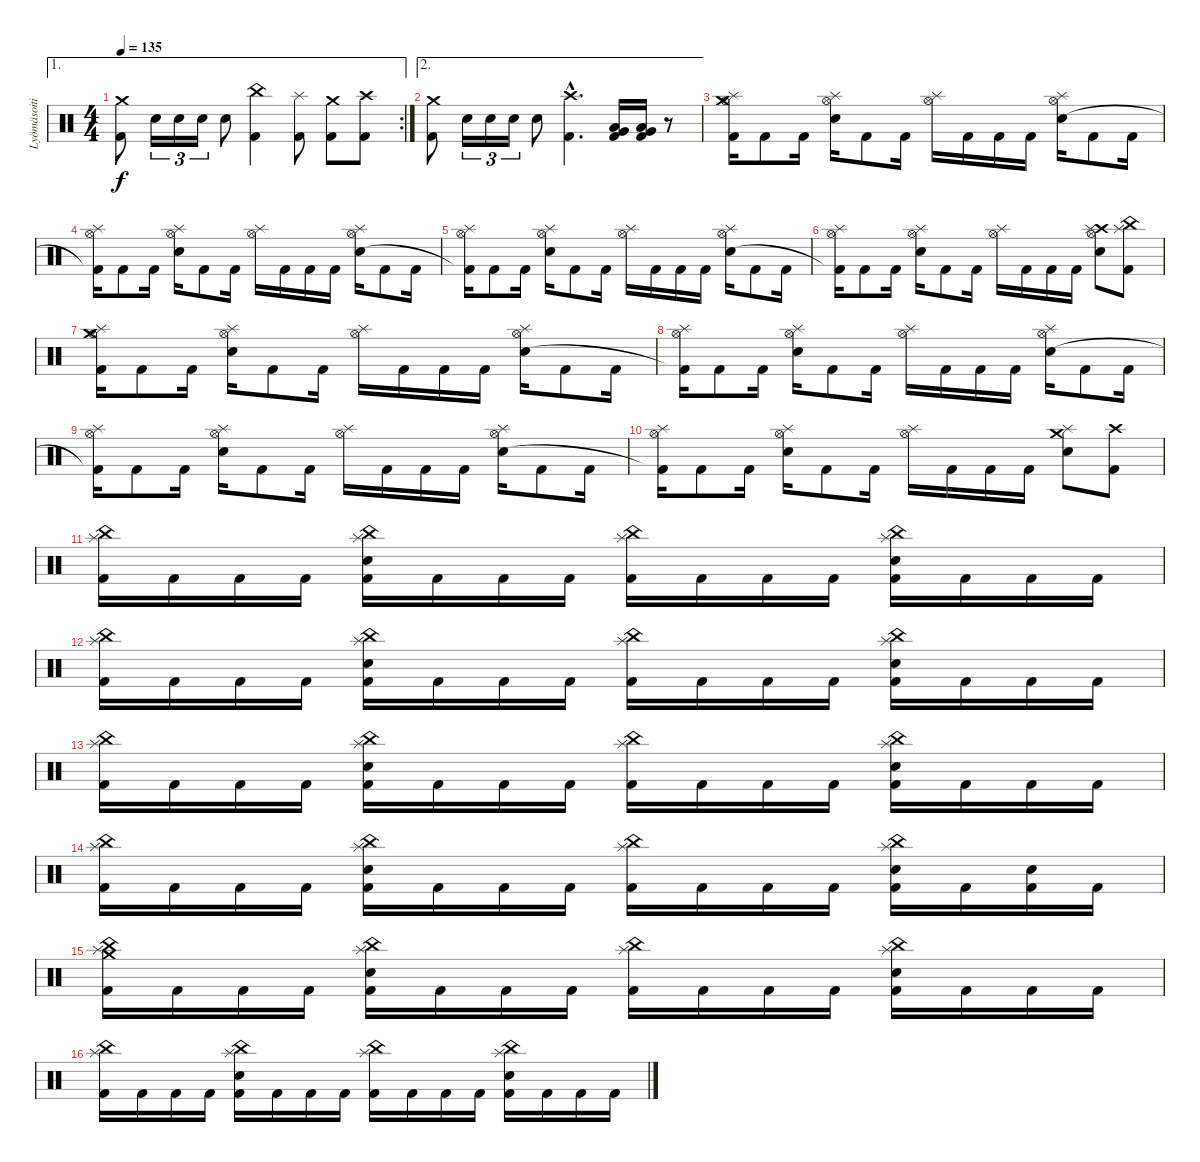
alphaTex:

\track ("Lyömäsoitin" "Lyömäsoiti") {instrument percussion}
\staff {score}
\articulation defaults
\ae 1
\rc 2
\ts (4 4)
\tempo 135
\clef neutral
\ks c
("Crash medium (hit)" "Kick (hit) 2").8{dy f} "Electric Snare (hit)".16{tu (3 2)} "Electric Snare (hit)".16{tu (3 2)} "Electric Snare (hit)".16{tu (3 2)} "Electric Snare (hit)".8 ("China (hit)" "Kick (hit) 2").4 ("Splash (hit)" "Kick (hit) 2").8 ("Crash medium (hit)" "Kick (hit) 2").8 ("Crash high (hit)" "Kick (hit) 2").8 |
\ae 2
("Crash medium (hit)" "Kick (hit) 2").8 "Electric Snare (hit)".16{tu (3 2)} "Electric Snare (hit)".16{tu (3 2)} "Electric Snare (hit)".16{tu (3 2)} "Electric Snare (hit)".8 ("Crash high (hit)"{hac} "Kick (hit) 2"{hac}).4{d} ("Low Tom (hit)" "Very Low Tom (hit)" "Kick (hit) 2").16 ("Low Tom (hit)" "Very Low Tom (hit)" "Kick (hit) 2").16 r.8 |
("Crash medium (hit)" "Hi-Hat (open)" "Splash (hit)" "Kick (hit) 2").16 "Kick (hit) 2".8 "Kick (hit) 2".16 ("Hi-Hat (open)" "Splash (hit)" "Electric Snare (hit)").16 "Kick (hit) 2".8 "Kick (hit) 2".16 ("Hi-Hat (open)" "Splash (hit)").16 "Kick (hit) 2".16 "Kick (hit) 2".16 "Kick (hit) 2".16 ("Hi-Hat (open)" "Splash (hit)" "Electric Snare (hit)").16 "Kick (hit) 2".8 "Kick (hit) 2".16 |
("Hi-Hat (open)" "Splash (hit)" "Kick (hit) 2"{t}).16 "Kick (hit) 2".8 "Kick (hit) 2".16 ("Hi-Hat (open)" "Splash (hit)" "Electric Snare (hit)").16 "Kick (hit) 2".8 "Kick (hit) 2".16 ("Hi-Hat (open)" "Splash (hit)").16 "Kick (hit) 2".16 "Kick (hit) 2".16 "Kick (hit) 2".16 ("Hi-Hat (open)" "Splash (hit)" "Electric Snare (hit)").16 "Kick (hit) 2".8 "Kick (hit) 2".16 |
("Hi-Hat (open)" "Splash (hit)" "Kick (hit) 2"{t}).16 "Kick (hit) 2".8 "Kick (hit) 2".16 ("Hi-Hat (open)" "Splash (hit)" "Electric Snare (hit)").16 "Kick (hit) 2".8 "Kick (hit) 2".16 ("Hi-Hat (open)" "Splash (hit)").16 "Kick (hit) 2".16 "Kick (hit) 2".16 "Kick (hit) 2".16 ("Hi-Hat (open)" "Splash (hit)" "Electric Snare (hit)").16 "Kick (hit) 2".8 "Kick (hit) 2".16 |
("Hi-Hat (open)" "Splash (hit)" "Kick (hit) 2"{t}).16 "Kick (hit) 2".8 "Kick (hit) 2".16 ("Hi-Hat (open)" "Splash (hit)" "Electric Snare (hit)").16 "Kick (hit) 2".8 "Kick (hit) 2".16 ("Hi-Hat (open)" "Splash (hit)").16 "Kick (hit) 2".16 "Kick (hit) 2".16 "Kick (hit) 2".16 ("Crash high (hit)" "Hi-Hat (open)" "Splash (hit)" "Electric Snare (hit)").8 ("Splash (hit)" "China (hit)" "Kick (hit) 2").8 |
("Crash medium (hit)" "Hi-Hat (open)" "Splash (hit)" "Kick (hit) 2").16 "Kick (hit) 2".8 "Kick (hit) 2".16 ("Hi-Hat (open)" "Splash (hit)" "Electric Snare (hit)").16 "Kick (hit) 2".8 "Kick (hit) 2".16 ("Hi-Hat (open)" "Splash (hit)").16 "Kick (hit) 2".16 "Kick (hit) 2".16 "Kick (hit) 2".16 ("Hi-Hat (open)" "Splash (hit)" "Electric Snare (hit)").16 "Kick (hit) 2".8 "Kick (hit) 2".16 |
("Hi-Hat (open)" "Splash (hit)" "Kick (hit) 2"{t}).16 "Kick (hit) 2".8 "Kick (hit) 2".16 ("Hi-Hat (open)" "Splash (hit)" "Electric Snare (hit)").16 "Kick (hit) 2".8 "Kick (hit) 2".16 ("Hi-Hat (open)" "Splash (hit)").16 "Kick (hit) 2".16 "Kick (hit) 2".16 "Kick (hit) 2".16 ("Hi-Hat (open)" "Splash (hit)" "Electric Snare (hit)").16 "Kick (hit) 2".8 "Kick (hit) 2".16 |
("Hi-Hat (open)" "Splash (hit)" "Kick (hit) 2"{t}).16 "Kick (hit) 2".8 "Kick (hit) 2".16 ("Hi-Hat (open)" "Splash (hit)" "Electric Snare (hit)").16 "Kick (hit) 2".8 "Kick (hit) 2".16 ("Hi-Hat (open)" "Splash (hit)").16 "Kick (hit) 2".16 "Kick (hit) 2".16 "Kick (hit) 2".16 ("Hi-Hat (open)" "Splash (hit)" "Electric Snare (hit)").16 "Kick (hit) 2".8 "Kick (hit) 2".16 |
("Hi-Hat (open)" "Splash (hit)" "Kick (hit) 2"{t}).16 "Kick (hit) 2".8 "Kick (hit) 2".16 ("Hi-Hat (open)" "Splash (hit)" "Electric Snare (hit)").16 "Kick (hit) 2".8 "Kick (hit) 2".16 ("Hi-Hat (open)" "Splash (hit)").16 "Kick (hit) 2".16 "Kick (hit) 2".16 "Kick (hit) 2".16 ("Crash medium (hit)" "Splash (hit)" "Electric Snare (hit)").8 ("Crash high (hit)" "Kick (hit) 2").8 |
("China (hit)" "Splash (hit)" "Kick (hit) 2").16 "Kick (hit) 2".16 "Kick (hit) 2".16 "Kick (hit) 2".16 ("China (hit)" "Splash (hit)" "Electric Snare (hit)" "Kick (hit) 2").16 "Kick (hit) 2".16 "Kick (hit) 2".16 "Kick (hit) 2".16 ("China (hit)" "Splash (hit)" "Kick (hit) 2").16 "Kick (hit) 2".16 "Kick (hit) 2".16 "Kick (hit) 2".16 ("China (hit)" "Splash (hit)" "Electric Snare (hit)" "Kick (hit) 2").16 "Kick (hit) 2".16 "Kick (hit) 2".16 "Kick (hit) 2".16 |
("China (hit)" "Splash (hit)" "Kick (hit) 2").16 "Kick (hit) 2".16 "Kick (hit) 2".16 "Kick (hit) 2".16 ("China (hit)" "Splash (hit)" "Electric Snare (hit)" "Kick (hit) 2").16 "Kick (hit) 2".16 "Kick (hit) 2".16 "Kick (hit) 2".16 ("China (hit)" "Splash (hit)" "Kick (hit) 2").16 "Kick (hit) 2".16 "Kick (hit) 2".16 "Kick (hit) 2".16 ("China (hit)" "Splash (hit)" "Electric Snare (hit)" "Kick (hit) 2").16 "Kick (hit) 2".16 "Kick (hit) 2".16 "Kick (hit) 2".16 |
("China (hit)" "Splash (hit)" "Kick (hit) 2").16 "Kick (hit) 2".16 "Kick (hit) 2".16 "Kick (hit) 2".16 ("China (hit)" "Splash (hit)" "Electric Snare (hit)" "Kick (hit) 2").16 "Kick (hit) 2".16 "Kick (hit) 2".16 "Kick (hit) 2".16 ("China (hit)" "Splash (hit)" "Kick (hit) 2").16 "Kick (hit) 2".16 "Kick (hit) 2".16 "Kick (hit) 2".16 ("China (hit)" "Splash (hit)" "Electric Snare (hit)" "Kick (hit) 2").16 "Kick (hit) 2".16 "Kick (hit) 2".16 "Kick (hit) 2".16 |
("China (hit)" "Splash (hit)" "Kick (hit) 2").16 "Kick (hit) 2".16 "Kick (hit) 2".16 "Kick (hit) 2".16 ("China (hit)" "Splash (hit)" "Electric Snare (hit)" "Kick (hit) 2").16 "Kick (hit) 2".16 "Kick (hit) 2".16 "Kick (hit) 2".16 ("China (hit)" "Splash (hit)" "Kick (hit) 2").16 "Kick (hit) 2".16 "Kick (hit) 2".16 "Kick (hit) 2".16 ("China (hit)" "Splash (hit)" "Electric Snare (hit)" "Kick (hit) 2").16 "Kick (hit) 2".16 ("Electric Snare (hit)" "Kick (hit) 2").16 "Kick (hit) 2".16 |
("Crash medium (hit)" "China (hit)" "Splash (hit)" "Kick (hit) 2").16 "Kick (hit) 2".16 "Kick (hit) 2".16 "Kick (hit) 2".16 ("China (hit)" "Splash (hit)" "Electric Snare (hit)" "Kick (hit) 2").16 "Kick (hit) 2".16 "Kick (hit) 2".16 "Kick (hit) 2".16 ("China (hit)" "Splash (hit)" "Kick (hit) 2").16 "Kick (hit) 2".16 "Kick (hit) 2".16 "Kick (hit) 2".16 ("China (hit)" "Splash (hit)" "Electric Snare (hit)" "Kick (hit) 2").16 "Kick (hit) 2".16 "Kick (hit) 2".16 "Kick (hit) 2".16 |
("China (hit)" "Splash (hit)" "Kick (hit) 2").16 "Kick (hit) 2".16 "Kick (hit) 2".16 "Kick (hit) 2".16 ("China (hit)" "Splash (hit)" "Electric Snare (hit)" "Kick (hit) 2").16 "Kick (hit) 2".16 "Kick (hit) 2".16 "Kick (hit) 2".16 ("China (hit)" "Splash (hit)" "Kick (hit) 2").16 "Kick (hit) 2".16 "Kick (hit) 2".16 "Kick (hit) 2".16 ("China (hit)" "Splash (hit)" "Electric Snare (hit)" "Kick (hit) 2").16 "Kick (hit) 2".16 "Kick (hit) 2".16 "Kick (hit) 2".16
